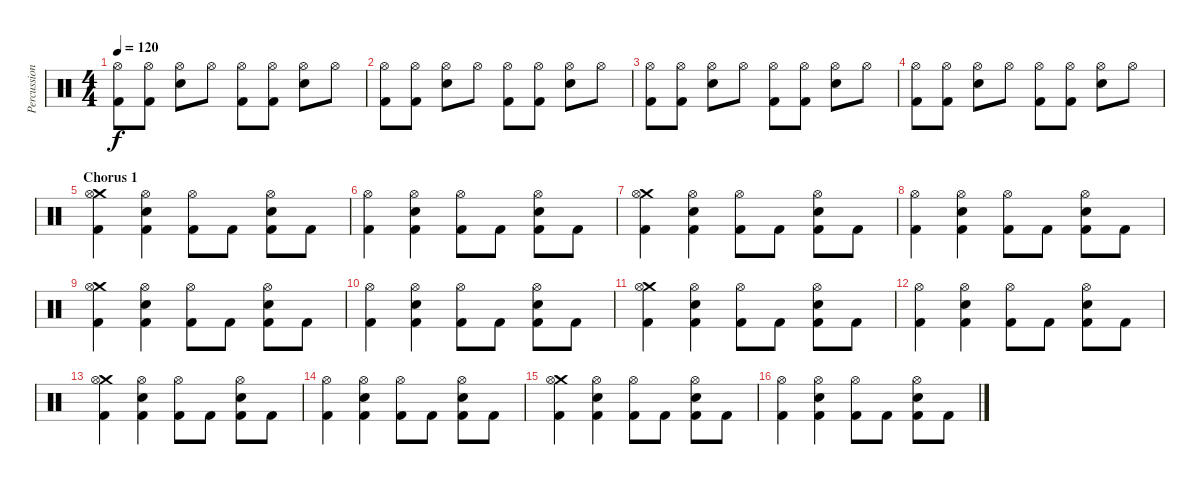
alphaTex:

\track ("Percussions" "Percussion") {instrument percussion}
\staff {score}
\articulation defaults
\ts (4 4)
\tempo 120
\clef neutral
\ks c
("Hi-Hat (open)" "Kick (hit) 2").8{dy f} ("Hi-Hat (open)" "Kick (hit) 2").8 ("Hi-Hat (open)" "Electric Snare (hit)").8 "Hi-Hat (open)".8 ("Hi-Hat (open)" "Kick (hit) 2").8 ("Hi-Hat (open)" "Kick (hit) 2").8 ("Hi-Hat (open)" "Electric Snare (hit)").8 "Hi-Hat (open)".8 |
("Hi-Hat (open)" "Kick (hit) 2").8 ("Hi-Hat (open)" "Kick (hit) 2").8 ("Hi-Hat (open)" "Electric Snare (hit)").8 "Hi-Hat (open)".8 ("Hi-Hat (open)" "Kick (hit) 2").8 ("Hi-Hat (open)" "Kick (hit) 2").8 ("Hi-Hat (open)" "Electric Snare (hit)").8 "Hi-Hat (open)".8 |
("Hi-Hat (open)" "Kick (hit) 2").8 ("Hi-Hat (open)" "Kick (hit) 2").8 ("Hi-Hat (open)" "Electric Snare (hit)").8 "Hi-Hat (open)".8 ("Hi-Hat (open)" "Kick (hit) 2").8 ("Hi-Hat (open)" "Kick (hit) 2").8 ("Hi-Hat (open)" "Electric Snare (hit)").8 "Hi-Hat (open)".8 |
("Hi-Hat (open)" "Kick (hit) 2").8 ("Hi-Hat (open)" "Kick (hit) 2").8 ("Hi-Hat (open)" "Electric Snare (hit)").8 "Hi-Hat (open)".8 ("Hi-Hat (open)" "Kick (hit) 2").8 ("Hi-Hat (open)" "Kick (hit) 2").8 ("Hi-Hat (open)" "Electric Snare (hit)").8 "Hi-Hat (open)".8 |
\section ("" "Chorus 1")
("Crash medium (hit)" "Hi-Hat (open)" "Kick (hit) 2").4 ("Hi-Hat (open)" "Electric Snare (hit)" "Kick (hit) 2").4 ("Hi-Hat (open)" "Kick (hit) 2").8 "Kick (hit) 2".8 ("Hi-Hat (open)" "Electric Snare (hit)" "Kick (hit) 2").8 "Kick (hit) 2".8 |
("Hi-Hat (open)" "Kick (hit) 2").4 ("Hi-Hat (open)" "Electric Snare (hit)" "Kick (hit) 2").4 ("Hi-Hat (open)" "Kick (hit) 2").8 "Kick (hit) 2".8 ("Hi-Hat (open)" "Electric Snare (hit)" "Kick (hit) 2").8 "Kick (hit) 2".8 |
("Crash medium (hit)" "Hi-Hat (open)" "Kick (hit) 2").4 ("Hi-Hat (open)" "Electric Snare (hit)" "Kick (hit) 2").4 ("Hi-Hat (open)" "Kick (hit) 2").8 "Kick (hit) 2".8 ("Hi-Hat (open)" "Electric Snare (hit)" "Kick (hit) 2").8 "Kick (hit) 2".8 |
("Hi-Hat (open)" "Kick (hit) 2").4 ("Hi-Hat (open)" "Electric Snare (hit)" "Kick (hit) 2").4 ("Hi-Hat (open)" "Kick (hit) 2").8 "Kick (hit) 2".8 ("Hi-Hat (open)" "Electric Snare (hit)" "Kick (hit) 2").8 "Kick (hit) 2".8 |
("Crash medium (hit)" "Hi-Hat (open)" "Kick (hit) 2").4 ("Hi-Hat (open)" "Electric Snare (hit)" "Kick (hit) 2").4 ("Hi-Hat (open)" "Kick (hit) 2").8 "Kick (hit) 2".8 ("Hi-Hat (open)" "Electric Snare (hit)" "Kick (hit) 2").8 "Kick (hit) 2".8 |
("Hi-Hat (open)" "Kick (hit) 2").4 ("Hi-Hat (open)" "Electric Snare (hit)" "Kick (hit) 2").4 ("Hi-Hat (open)" "Kick (hit) 2").8 "Kick (hit) 2".8 ("Hi-Hat (open)" "Electric Snare (hit)" "Kick (hit) 2").8 "Kick (hit) 2".8 |
("Crash medium (hit)" "Hi-Hat (open)" "Kick (hit) 2").4 ("Hi-Hat (open)" "Electric Snare (hit)" "Kick (hit) 2").4 ("Hi-Hat (open)" "Kick (hit) 2").8 "Kick (hit) 2".8 ("Hi-Hat (open)" "Electric Snare (hit)" "Kick (hit) 2").8 "Kick (hit) 2".8 |
("Hi-Hat (open)" "Kick (hit) 2").4 ("Hi-Hat (open)" "Electric Snare (hit)" "Kick (hit) 2").4 ("Hi-Hat (open)" "Kick (hit) 2").8 "Kick (hit) 2".8 ("Hi-Hat (open)" "Electric Snare (hit)" "Kick (hit) 2").8 "Kick (hit) 2".8 |
("Crash medium (hit)" "Hi-Hat (open)" "Kick (hit) 2").4 ("Hi-Hat (open)" "Electric Snare (hit)" "Kick (hit) 2").4 ("Hi-Hat (open)" "Kick (hit) 2").8 "Kick (hit) 2".8 ("Hi-Hat (open)" "Electric Snare (hit)" "Kick (hit) 2").8 "Kick (hit) 2".8 |
("Hi-Hat (open)" "Kick (hit) 2").4 ("Hi-Hat (open)" "Electric Snare (hit)" "Kick (hit) 2").4 ("Hi-Hat (open)" "Kick (hit) 2").8 "Kick (hit) 2".8 ("Hi-Hat (open)" "Electric Snare (hit)" "Kick (hit) 2").8 "Kick (hit) 2".8 |
("Crash medium (hit)" "Hi-Hat (open)" "Kick (hit) 2").4 ("Hi-Hat (open)" "Electric Snare (hit)" "Kick (hit) 2").4 ("Hi-Hat (open)" "Kick (hit) 2").8 "Kick (hit) 2".8 ("Hi-Hat (open)" "Electric Snare (hit)" "Kick (hit) 2").8 "Kick (hit) 2".8 |
("Hi-Hat (open)" "Kick (hit) 2").4 ("Hi-Hat (open)" "Electric Snare (hit)" "Kick (hit) 2").4 ("Hi-Hat (open)" "Kick (hit) 2").8 "Kick (hit) 2".8 ("Hi-Hat (open)" "Electric Snare (hit)" "Kick (hit) 2").8 "Kick (hit) 2".8
